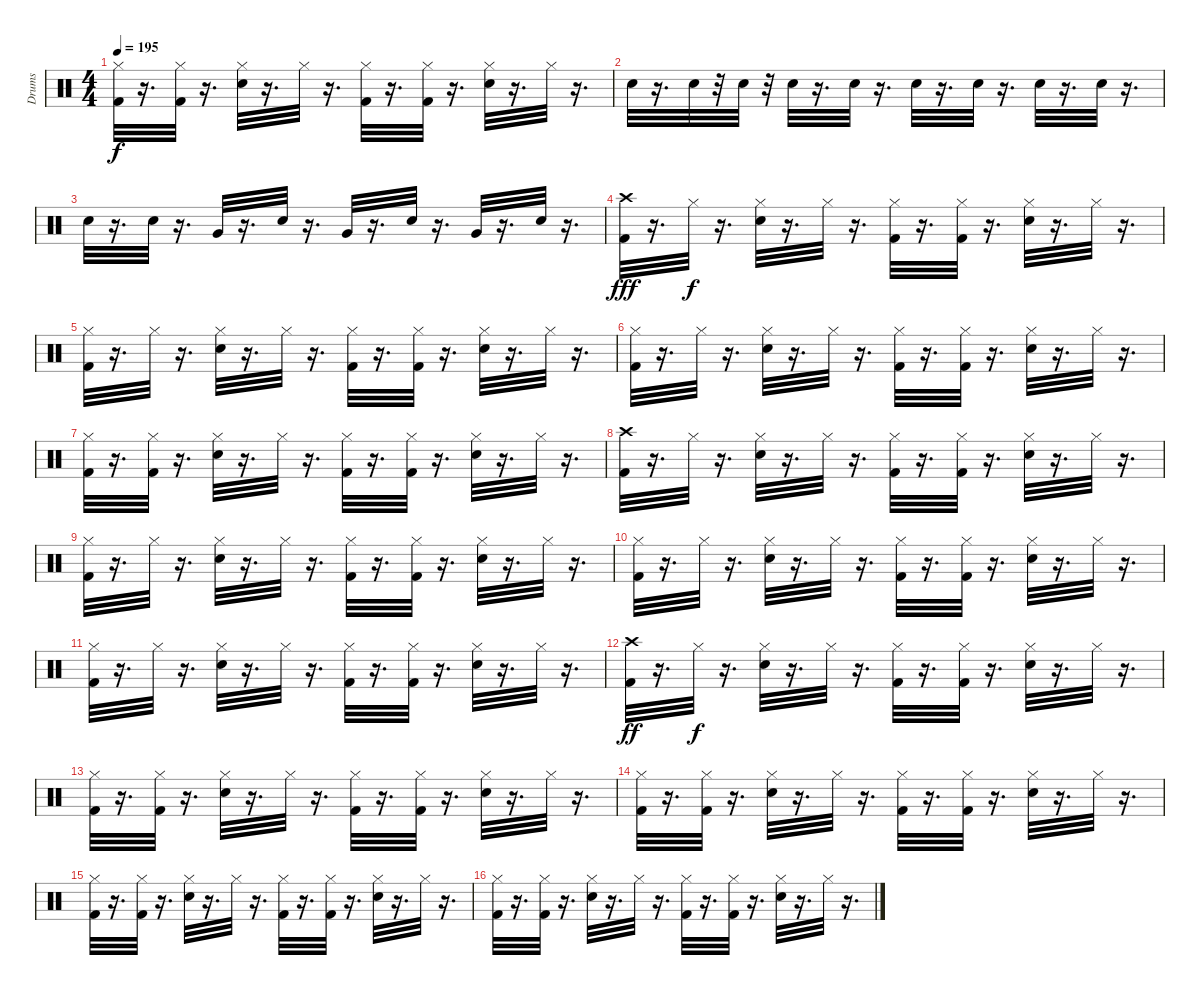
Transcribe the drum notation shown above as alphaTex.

\track ("Drums" "Drums") {instrument percussion}
\staff {score}
\articulation defaults
\ts (4 4)
\tempo 195
\clef neutral
\ks c
("Hi-Hat (closed)" "Kick (hit) 2").32{dy f} r.16{d} ("Kick (hit) 2" "Hi-Hat (closed)").32 r.16{d} ("Hi-Hat (closed)" "Snare (hit) 2").32 r.16{d} "Hi-Hat (closed)".32 r.16{d} ("Hi-Hat (closed)" "Kick (hit) 2").32 r.16{d} ("Hi-Hat (closed)" "Kick (hit) 2").32 r.16{d} ("Hi-Hat (closed)" "Snare (hit) 2").32 r.16{d} "Hi-Hat (closed)".32 r.16{d} |
"Snare (hit) 2".32 r.16{d} "Snare (hit) 2".32 r.32 "Snare (hit) 2".32 r.32 "Snare (hit) 2".32 r.16{d} "Snare (hit) 2".32 r.16{d} "Snare (hit) 2".32 r.16{d} "Snare (hit) 2".32 r.16{d} "Snare (hit) 2".32 r.16{d} "Snare (hit) 2".32 r.16{d} |
"Snare (hit) 2".32 r.16{d} "Snare (hit) 2".32 r.16{d} "Very Low Tom (hit)".32 r.16{d} "Snare (hit) 2".32 r.16{d} "Very Low Tom (hit)".32 r.16{d} "Snare (hit) 2".32 r.16{d} "Very Low Tom (hit)".32 r.16{d} "Snare (hit) 2".32 r.16{d} |
("Kick (hit) 2" "Crash high (hit)").32{dy fff} r.16{d} "Hi-Hat (closed)".32{dy f} r.16{d} ("Snare (hit) 2" "Hi-Hat (closed)").32 r.16{d} "Hi-Hat (closed)".32 r.16{d} ("Kick (hit) 2" "Hi-Hat (closed)").32 r.16{d} ("Kick (hit) 2" "Hi-Hat (closed)").32 r.16{d} ("Snare (hit) 2" "Hi-Hat (closed)").32 r.16{d} "Hi-Hat (closed)".32 r.16{d} |
("Kick (hit) 2" "Hi-Hat (closed)").32 r.16{d} "Hi-Hat (closed)".32 r.16{d} ("Snare (hit) 2" "Hi-Hat (closed)").32 r.16{d} "Hi-Hat (closed)".32 r.16{d} ("Kick (hit) 2" "Hi-Hat (closed)").32 r.16{d} ("Kick (hit) 2" "Hi-Hat (closed)").32 r.16{d} ("Snare (hit) 2" "Hi-Hat (closed)").32 r.16{d} "Hi-Hat (closed)".32 r.16{d} |
("Kick (hit) 2" "Hi-Hat (closed)").32 r.16{d} "Hi-Hat (closed)".32 r.16{d} ("Snare (hit) 2" "Hi-Hat (closed)").32 r.16{d} "Hi-Hat (closed)".32 r.16{d} ("Kick (hit) 2" "Hi-Hat (closed)").32 r.16{d} ("Kick (hit) 2" "Hi-Hat (closed)").32 r.16{d} ("Snare (hit) 2" "Hi-Hat (closed)").32 r.16{d} "Hi-Hat (closed)".32 r.16{d} |
("Kick (hit) 2" "Hi-Hat (closed)").32 r.16{d} ("Kick (hit) 2" "Hi-Hat (closed)").32 r.16{d} ("Snare (hit) 2" "Hi-Hat (closed)").32 r.16{d} "Hi-Hat (closed)".32 r.16{d} ("Kick (hit) 2" "Hi-Hat (closed)").32 r.16{d} ("Kick (hit) 2" "Hi-Hat (closed)").32 r.16{d} ("Snare (hit) 2" "Hi-Hat (closed)").32 r.16{d} "Hi-Hat (closed)".32 r.16{d} |
("Crash high (hit)" "Kick (hit) 2").32 r.16{d} "Hi-Hat (closed)".32 r.16{d} ("Hi-Hat (closed)" "Snare (hit) 2").32 r.16{d} "Hi-Hat (closed)".32 r.16{d} ("Hi-Hat (closed)" "Kick (hit) 2").32 r.16{d} ("Hi-Hat (closed)" "Kick (hit) 2").32 r.16{d} ("Hi-Hat (closed)" "Snare (hit) 2").32 r.16{d} "Hi-Hat (closed)".32 r.16{d} |
("Hi-Hat (closed)" "Kick (hit) 2").32 r.16{d} "Hi-Hat (closed)".32 r.16{d} ("Hi-Hat (closed)" "Snare (hit) 2").32 r.16{d} "Hi-Hat (closed)".32 r.16{d} ("Hi-Hat (closed)" "Kick (hit) 2").32 r.16{d} ("Hi-Hat (closed)" "Kick (hit) 2").32 r.16{d} ("Hi-Hat (closed)" "Snare (hit) 2").32 r.16{d} "Hi-Hat (closed)".32 r.16{d} |
("Hi-Hat (closed)" "Kick (hit) 2").32 r.16{d} "Hi-Hat (closed)".32 r.16{d} ("Hi-Hat (closed)" "Snare (hit) 2").32 r.16{d} "Hi-Hat (closed)".32 r.16{d} ("Hi-Hat (closed)" "Kick (hit) 2").32 r.16{d} ("Hi-Hat (closed)" "Kick (hit) 2").32 r.16{d} ("Hi-Hat (closed)" "Snare (hit) 2").32 r.16{d} "Hi-Hat (closed)".32 r.16{d} |
("Hi-Hat (closed)" "Kick (hit) 2").32 r.16{d} "Hi-Hat (closed)".32 r.16{d} ("Hi-Hat (closed)" "Snare (hit) 2").32 r.16{d} "Hi-Hat (closed)".32 r.16{d} ("Hi-Hat (closed)" "Kick (hit) 2").32 r.16{d} ("Hi-Hat (closed)" "Kick (hit) 2").32 r.16{d} ("Hi-Hat (closed)" "Snare (hit) 2").32 r.16{d} "Hi-Hat (closed)".32 r.16{d} |
("Kick (hit) 2" "Crash high (hit)").32{dy ff} r.16{d} "Hi-Hat (closed)".32{dy f} r.16{d} ("Snare (hit) 2" "Hi-Hat (closed)").32 r.16{d} "Hi-Hat (closed)".32 r.16{d} ("Kick (hit) 2" "Hi-Hat (closed)").32 r.16{d} ("Kick (hit) 2" "Hi-Hat (closed)").32 r.16{d} ("Snare (hit) 2" "Hi-Hat (closed)").32 r.16{d} "Hi-Hat (closed)".32 r.16{d} |
("Kick (hit) 2" "Hi-Hat (closed)").32 r.16{d} ("Kick (hit) 2" "Hi-Hat (closed)").32 r.16{d} ("Snare (hit) 2" "Hi-Hat (closed)").32 r.16{d} "Hi-Hat (closed)".32 r.16{d} ("Kick (hit) 2" "Hi-Hat (closed)").32 r.16{d} ("Kick (hit) 2" "Hi-Hat (closed)").32 r.16{d} ("Snare (hit) 2" "Hi-Hat (closed)").32 r.16{d} "Hi-Hat (closed)".32 r.16{d} |
("Kick (hit) 2" "Hi-Hat (closed)").32 r.16{d} ("Kick (hit) 2" "Hi-Hat (closed)").32 r.16{d} ("Snare (hit) 2" "Hi-Hat (closed)").32 r.16{d} "Hi-Hat (closed)".32 r.16{d} ("Kick (hit) 2" "Hi-Hat (closed)").32 r.16{d} ("Kick (hit) 2" "Hi-Hat (closed)").32 r.16{d} ("Snare (hit) 2" "Hi-Hat (closed)").32 r.16{d} "Hi-Hat (closed)".32 r.16{d} |
("Kick (hit) 2" "Hi-Hat (closed)").32 r.16{d} ("Kick (hit) 2" "Hi-Hat (closed)").32 r.16{d} ("Snare (hit) 2" "Hi-Hat (closed)").32 r.16{d} "Hi-Hat (closed)".32 r.16{d} ("Kick (hit) 2" "Hi-Hat (closed)").32 r.16{d} ("Kick (hit) 2" "Hi-Hat (closed)").32 r.16{d} ("Snare (hit) 2" "Hi-Hat (closed)").32 r.16{d} "Hi-Hat (closed)".32 r.16{d} |
("Kick (hit) 2" "Hi-Hat (closed)").32 r.16{d} ("Kick (hit) 2" "Hi-Hat (closed)").32 r.16{d} ("Snare (hit) 2" "Hi-Hat (closed)").32 r.16{d} "Hi-Hat (closed)".32 r.16{d} ("Kick (hit) 2" "Hi-Hat (closed)").32 r.16{d} ("Kick (hit) 2" "Hi-Hat (closed)").32 r.16{d} ("Snare (hit) 2" "Hi-Hat (closed)").32 r.16{d} "Hi-Hat (closed)".32 r.16{d}
